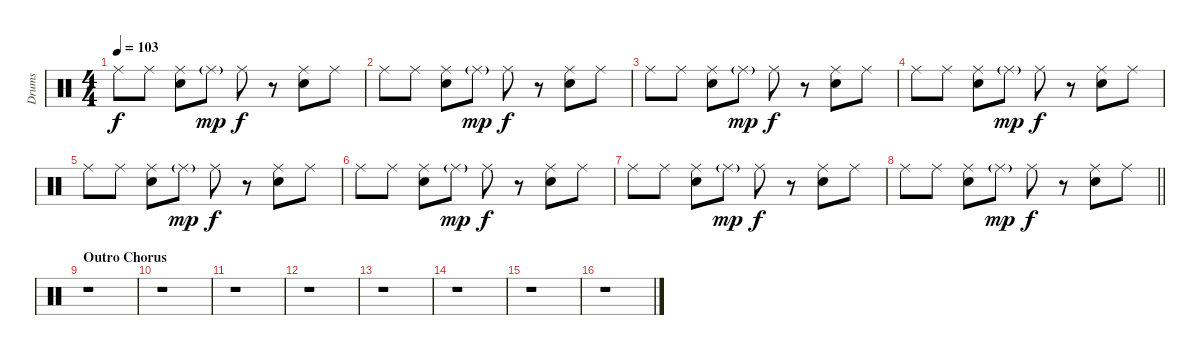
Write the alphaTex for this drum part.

\track ("Drums" "Drums") {instrument percussion}
\staff {score}
\articulation defaults
\ts (4 4)
\tempo 103
\clef neutral
\ks c "Ride (middle)".8{dy f} "Ride (middle)".8
("Ride (middle)" "Snare (hit) 2").8 "Ride (middle)"{g}.8{dy mp} "Ride (middle)".8{dy f} r.8 ("Ride (middle)" "Snare (hit) 2").8 "Ride (middle)".8 |
"Ride (middle)".8 "Ride (middle)".8 ("Ride (middle)" "Snare (hit) 2").8 "Ride (middle)"{g}.8{dy mp} "Ride (middle)".8{dy f} r.8 ("Ride (middle)" "Snare (hit) 2").8 "Ride (middle)".8 |
"Ride (middle)".8 "Ride (middle)".8 ("Ride (middle)" "Snare (hit) 2").8 "Ride (middle)"{g}.8{dy mp} "Ride (middle)".8{dy f} r.8 ("Ride (middle)" "Snare (hit) 2").8 "Ride (middle)".8 |
"Ride (middle)".8 "Ride (middle)".8 ("Ride (middle)" "Snare (hit) 2").8 "Ride (middle)"{g}.8{dy mp} "Ride (middle)".8{dy f} r.8 ("Ride (middle)" "Snare (hit) 2").8 "Ride (middle)".8 |
"Ride (middle)".8 "Ride (middle)".8 ("Ride (middle)" "Snare (hit) 2").8 "Ride (middle)"{g}.8{dy mp} "Ride (middle)".8{dy f} r.8 ("Ride (middle)" "Snare (hit) 2").8 "Ride (middle)".8 |
"Ride (middle)".8 "Ride (middle)".8 ("Ride (middle)" "Snare (hit) 2").8 "Ride (middle)"{g}.8{dy mp} "Ride (middle)".8{dy f} r.8 ("Ride (middle)" "Snare (hit) 2").8 "Ride (middle)".8 |
"Ride (middle)".8 "Ride (middle)".8 ("Ride (middle)" "Snare (hit) 2").8 "Ride (middle)"{g}.8{dy mp} "Ride (middle)".8{dy f} r.8 ("Ride (middle)" "Snare (hit) 2").8 "Ride (middle)".8 |
\barLineRight lightlight "Ride (middle)".8 "Ride (middle)".8
("Ride (middle)" "Snare (hit) 2").8 "Ride (middle)"{g}.8{dy mp} "Ride (middle)".8{dy f} r.8 ("Ride (middle)" "Snare (hit) 2").8 "Ride (middle)".8 |
\section ("" "Outro Chorus")
r.1 |
r.1 |
r.1 |
r.1 |
r.1 |
r.1 |
r.1 |
r.1
